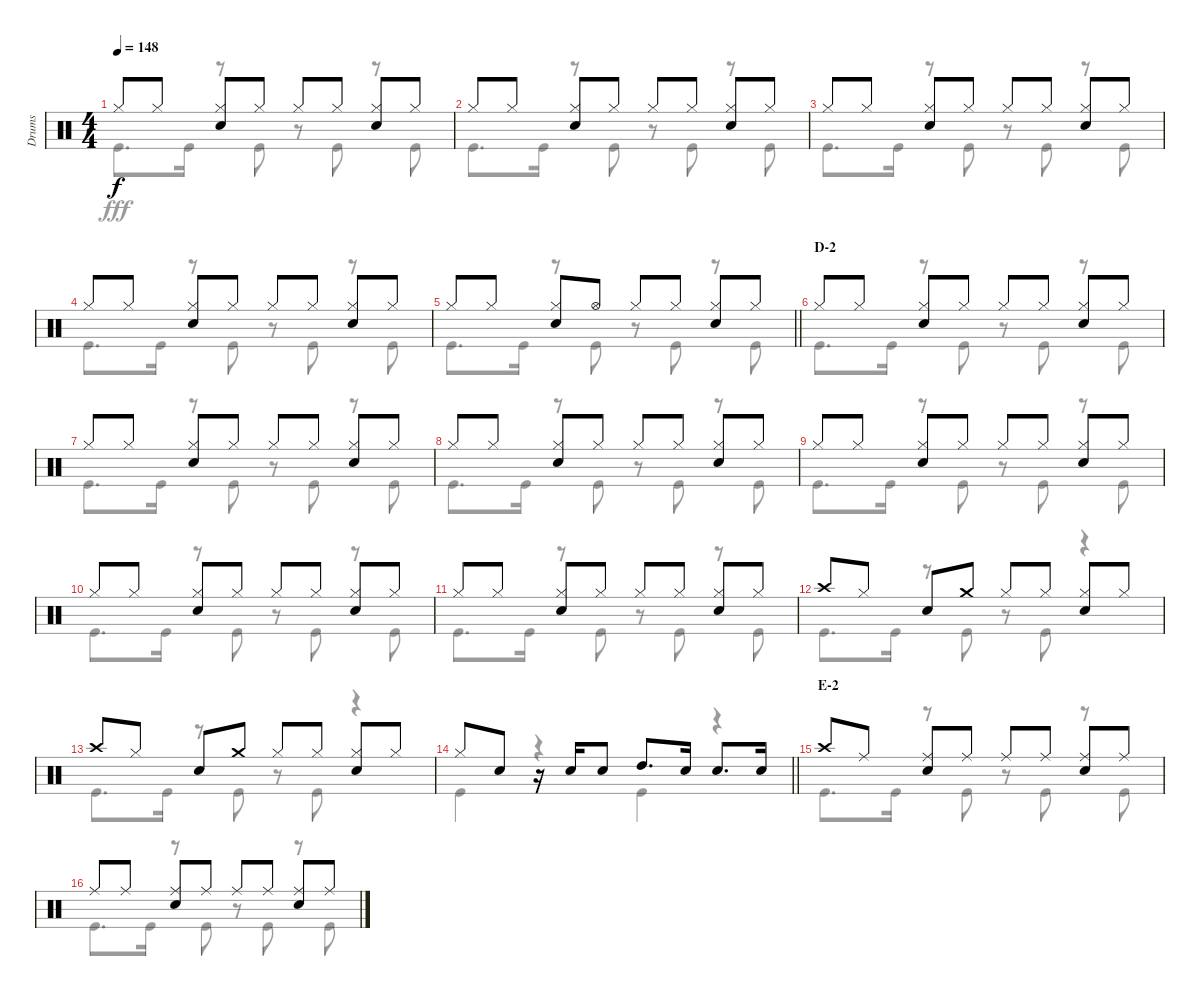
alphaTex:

\track ("Drums" "Drums") {instrument percussion}
\staff {score}
\articulation defaults
\voice
\ts (4 4)
\tempo 148
\clef neutral
\ks c "Hi-Hat (closed)".8{dy f} "Hi-Hat (closed)".8
("Hi-Hat (closed)" "Snare (hit) 2").8 "Hi-Hat (closed)".8 "Hi-Hat (closed)".8 "Hi-Hat (closed)".8 ("Hi-Hat (closed)" "Snare (hit) 2").8 "Hi-Hat (closed)".8 |
"Hi-Hat (closed)".8 "Hi-Hat (closed)".8 ("Hi-Hat (closed)" "Snare (hit) 2").8 "Hi-Hat (closed)".8 "Hi-Hat (closed)".8 "Hi-Hat (closed)".8 ("Hi-Hat (closed)" "Snare (hit) 2").8 "Hi-Hat (closed)".8 |
"Hi-Hat (closed)".8 "Hi-Hat (closed)".8 ("Hi-Hat (closed)" "Snare (hit) 2").8 "Hi-Hat (closed)".8 "Hi-Hat (closed)".8 "Hi-Hat (closed)".8 ("Hi-Hat (closed)" "Snare (hit) 2").8 "Hi-Hat (closed)".8 |
"Hi-Hat (closed)".8 "Hi-Hat (closed)".8 ("Hi-Hat (closed)" "Snare (hit) 2").8 "Hi-Hat (closed)".8 "Hi-Hat (closed)".8 "Hi-Hat (closed)".8 ("Hi-Hat (closed)" "Snare (hit) 2").8 "Hi-Hat (closed)".8 |
\barLineRight lightlight "Hi-Hat (closed)".8 "Hi-Hat (closed)".8
("Hi-Hat (closed)" "Snare (hit) 2").8 "Hi-Hat (open)".8 "Hi-Hat (closed)".8 "Hi-Hat (closed)".8 ("Hi-Hat (closed)" "Snare (hit) 2").8 "Hi-Hat (closed)".8 |
\section ("" "D-2")
"Hi-Hat (closed)".8 "Hi-Hat (closed)".8 ("Hi-Hat (closed)" "Snare (hit) 2").8 "Hi-Hat (closed)".8 "Hi-Hat (closed)".8 "Hi-Hat (closed)".8 ("Hi-Hat (closed)" "Snare (hit) 2").8 "Hi-Hat (closed)".8 |
"Hi-Hat (closed)".8 "Hi-Hat (closed)".8 ("Hi-Hat (closed)" "Snare (hit) 2").8 "Hi-Hat (closed)".8 "Hi-Hat (closed)".8 "Hi-Hat (closed)".8 ("Hi-Hat (closed)" "Snare (hit) 2").8 "Hi-Hat (closed)".8 |
"Hi-Hat (closed)".8 "Hi-Hat (closed)".8 ("Hi-Hat (closed)" "Snare (hit) 2").8 "Hi-Hat (closed)".8 "Hi-Hat (closed)".8 "Hi-Hat (closed)".8 ("Hi-Hat (closed)" "Snare (hit) 2").8 "Hi-Hat (closed)".8 |
"Hi-Hat (closed)".8 "Hi-Hat (closed)".8 ("Hi-Hat (closed)" "Snare (hit) 2").8 "Hi-Hat (closed)".8 "Hi-Hat (closed)".8 "Hi-Hat (closed)".8 ("Hi-Hat (closed)" "Snare (hit) 2").8 "Hi-Hat (closed)".8 |
"Hi-Hat (closed)".8 "Hi-Hat (closed)".8 ("Hi-Hat (closed)" "Snare (hit) 2").8 "Hi-Hat (closed)".8 "Hi-Hat (closed)".8 "Hi-Hat (closed)".8 ("Hi-Hat (closed)" "Snare (hit) 2").8 "Hi-Hat (closed)".8 |
"Hi-Hat (closed)".8 "Hi-Hat (closed)".8 ("Hi-Hat (closed)" "Snare (hit) 2").8 "Hi-Hat (closed)".8 "Hi-Hat (closed)".8 "Hi-Hat (closed)".8 ("Hi-Hat (closed)" "Snare (hit) 2").8 "Hi-Hat (closed)".8 |
"Crash high (hit)".8 "Hi-Hat (closed)".8 "Snare (hit) 2".8 "Crash medium (hit)".8 "Hi-Hat (closed)".8 "Hi-Hat (closed)".8 ("Hi-Hat (closed)" "Snare (hit) 2").8 "Hi-Hat (closed)".8 |
"Crash high (hit)".8 "Hi-Hat (closed)".8 "Snare (hit) 2".8 "Crash medium (hit)".8 "Hi-Hat (closed)".8 "Hi-Hat (closed)".8 ("Hi-Hat (closed)" "Snare (hit) 2").8 "Hi-Hat (closed)".8 |
\barLineRight lightlight "Hi-Hat (closed)".8 "Snare (hit) 2".8
r.16 "Snare (hit) 2".16 "Snare (hit) 2".8 "High Tom (hit)".8{d} "Snare (hit) 2".16 "Snare (hit) 2".8{d} "Snare (hit) 2".16 |
\section ("" "E-2")
"Crash high (hit)".8 "Ride (middle)".8 ("Ride (middle)" "Snare (hit) 2").8 "Ride (middle)".8 "Ride (middle)".8 "Ride (middle)".8 ("Ride (middle)" "Snare (hit) 2").8 "Ride (middle)".8 |
"Ride (middle)".8 "Ride (middle)".8 ("Ride (middle)" "Snare (hit) 2").8 "Ride (middle)".8 "Ride (middle)".8 "Ride (middle)".8 ("Ride (middle)" "Snare (hit) 2").8 "Ride (middle)".8
\voice
\clef neutral
\ottava regular
\simile none
\ks c "Kick (hit)".8{d dy fff} "Kick (hit)".16
r.8 "Kick (hit)".8 r.8 "Kick (hit)".8 r.8 "Kick (hit)".8 |
"Kick (hit)".8{d} "Kick (hit)".16 r.8 "Kick (hit)".8 r.8 "Kick (hit)".8 r.8 "Kick (hit)".8 |
"Kick (hit)".8{d} "Kick (hit)".16 r.8 "Kick (hit)".8 r.8 "Kick (hit)".8 r.8 "Kick (hit)".8 |
"Kick (hit)".8{d} "Kick (hit)".16 r.8 "Kick (hit)".8 r.8 "Kick (hit)".8 r.8 "Kick (hit)".8 |
\barLineRight lightlight "Kick (hit)".8{d} "Kick (hit)".16
r.8 "Kick (hit)".8 r.8 "Kick (hit)".8 r.8 "Kick (hit)".8 |
"Kick (hit)".8{d} "Kick (hit)".16 r.8 "Kick (hit)".8 r.8 "Kick (hit)".8 r.8 "Kick (hit)".8 |
"Kick (hit)".8{d} "Kick (hit)".16 r.8 "Kick (hit)".8 r.8 "Kick (hit)".8 r.8 "Kick (hit)".8 |
"Kick (hit)".8{d} "Kick (hit)".16 r.8 "Kick (hit)".8 r.8 "Kick (hit)".8 r.8 "Kick (hit)".8 |
"Kick (hit)".8{d} "Kick (hit)".16 r.8 "Kick (hit)".8 r.8 "Kick (hit)".8 r.8 "Kick (hit)".8 |
"Kick (hit)".8{d} "Kick (hit)".16 r.8 "Kick (hit)".8 r.8 "Kick (hit)".8 r.8 "Kick (hit)".8 |
"Kick (hit)".8{d} "Kick (hit)".16 r.8 "Kick (hit)".8 r.8 "Kick (hit)".8 r.8 "Kick (hit)".8 |
"Kick (hit)".8{d} "Kick (hit)".16 r.8 "Kick (hit)".8 r.8 "Kick (hit)".8 r.4 |
"Kick (hit)".8{d} "Kick (hit)".16 r.8 "Kick (hit)".8 r.8 "Kick (hit)".8 r.4 |
\barLineRight lightlight "Kick (hit)".4
r.4 "Kick (hit)".4 r.4 |
"Kick (hit)".8{d} "Kick (hit)".16 r.8 "Kick (hit)".8 r.8 "Kick (hit)".8 r.8 "Kick (hit)".8 |
"Kick (hit)".8{d} "Kick (hit)".16 r.8 "Kick (hit)".8 r.8 "Kick (hit)".8 r.8 "Kick (hit)".8
